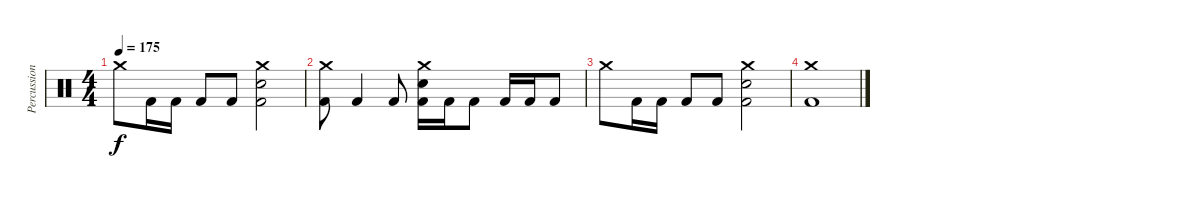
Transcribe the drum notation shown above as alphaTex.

\track ("Percussion" "Percussion") {instrument percussion}
\staff {score}
\articulation defaults
\ts (4 4)
\tempo 175
\clef neutral
\ks c "Crash medium (hit)".8{dy f} "Kick (hit) 2".16 "Kick (hit) 2".16 "Kick (hit) 2".8 "Kick (hit) 2".8
("Crash medium (hit)" "Electric Snare (hit)" "Kick (hit) 2").2 |
("Crash medium (hit)" "Kick (hit) 2").8 "Kick (hit) 2".4 "Kick (hit) 2".8 ("Crash medium (hit)" "Electric Snare (hit)" "Kick (hit) 2").16 "Kick (hit) 2".16 "Kick (hit) 2".8 "Kick (hit) 2".16 "Kick (hit) 2".16 "Kick (hit) 2".8 |
"Crash medium (hit)".8 "Kick (hit) 2".16 "Kick (hit) 2".16 "Kick (hit) 2".8 "Kick (hit) 2".8 ("Crash medium (hit)" "Electric Snare (hit)" "Kick (hit) 2").2 |
("Crash medium (hit)" "Kick (hit) 2").1
